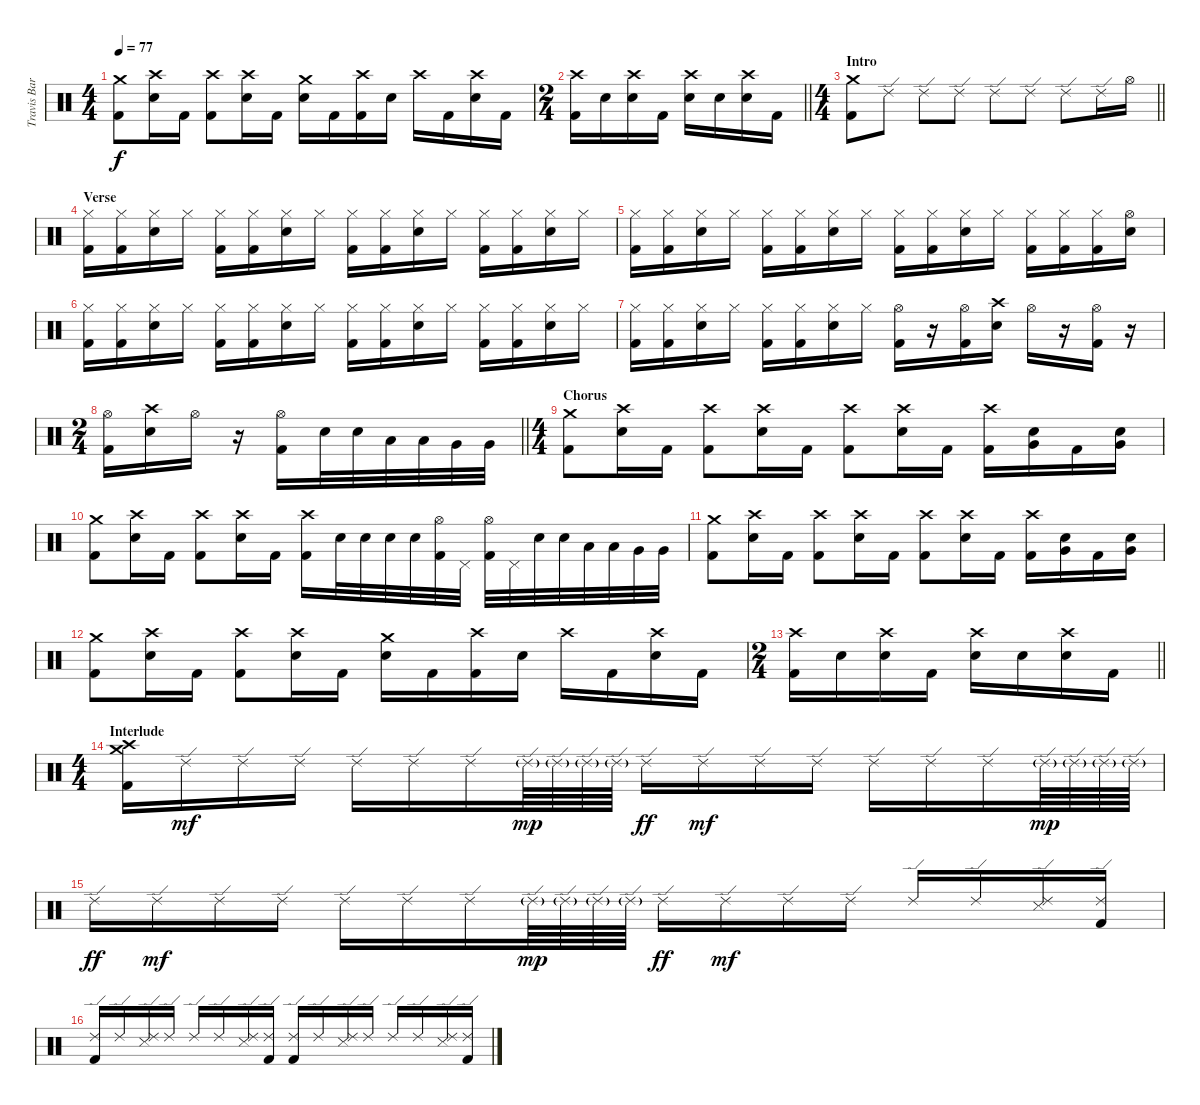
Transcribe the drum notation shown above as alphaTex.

\track ("Travis Barker" "Travis Bar") {instrument percussion}
\staff {score}
\articulation defaults
\ts (4 4)
\tempo 77
\clef neutral
\ks c
("Crash medium (hit)" "Kick (hit) 2").8{dy f} ("Crash high (hit)" "Electric Snare (hit)").16 "Kick (hit) 2".16 ("Crash high (hit)" "Kick (hit) 2").8 ("Crash high (hit)" "Electric Snare (hit)").16 "Kick (hit) 2".16 ("Crash medium (hit)" "Electric Snare (hit)").16 "Kick (hit) 2".16 ("Crash high (hit)" "Kick (hit) 2").16 "Electric Snare (hit)".16 "Crash high (hit)".16 "Kick (hit) 2".16 ("Crash high (hit)" "Electric Snare (hit)").16 "Kick (hit) 2".16 |
\ts (2 4)
\barLineRight lightlight
("Crash high (hit)" "Kick (hit) 2").16 "Electric Snare (hit)".16 ("Crash high (hit)" "Electric Snare (hit)").16 "Kick (hit) 2".16 ("Crash high (hit)" "Electric Snare (hit)").16 "Electric Snare (hit)".16 ("Crash high (hit)" "Electric Snare (hit)").16 "Kick (hit) 2".16 |
\ts (4 4)
\section ("" "Intro")
\barLineRight lightlight
("Crash medium (hit)" "Kick (hit) 2").8 "Ride (edge) 2".8 "Ride (edge) 2".8 "Ride (edge) 2".8 "Ride (edge) 2".8 "Ride (edge) 2".8 "Ride (edge) 2".8 "Ride (edge) 2".16 "Hi-Hat (open)".16 |
\section ("" "Verse")
("Hi-Hat (closed)" "Kick (hit) 2").16 ("Hi-Hat (closed)" "Kick (hit) 2").16 ("Hi-Hat (closed)" "Electric Snare (hit)").16 "Hi-Hat (closed)".16 ("Hi-Hat (closed)" "Kick (hit) 2").16 ("Hi-Hat (closed)" "Kick (hit) 2").16 ("Hi-Hat (closed)" "Electric Snare (hit)").16 "Hi-Hat (closed)".16 ("Hi-Hat (closed)" "Kick (hit) 2").16 ("Hi-Hat (closed)" "Kick (hit) 2").16 ("Hi-Hat (closed)" "Electric Snare (hit)").16 "Hi-Hat (closed)".16 ("Hi-Hat (closed)" "Kick (hit) 2").16 ("Hi-Hat (closed)" "Kick (hit) 2").16 ("Hi-Hat (closed)" "Electric Snare (hit)").16 "Hi-Hat (closed)".16 |
("Hi-Hat (closed)" "Kick (hit) 2").16 ("Hi-Hat (closed)" "Kick (hit) 2").16 ("Hi-Hat (closed)" "Electric Snare (hit)").16 "Hi-Hat (closed)".16 ("Hi-Hat (closed)" "Kick (hit) 2").16 ("Hi-Hat (closed)" "Kick (hit) 2").16 ("Hi-Hat (closed)" "Electric Snare (hit)").16 "Hi-Hat (closed)".16 ("Hi-Hat (closed)" "Kick (hit) 2").16 ("Hi-Hat (closed)" "Kick (hit) 2").16 ("Hi-Hat (closed)" "Electric Snare (hit)").16 "Hi-Hat (closed)".16 ("Hi-Hat (closed)" "Kick (hit) 2").16 ("Hi-Hat (closed)" "Kick (hit) 2").16 ("Hi-Hat (closed)" "Kick (hit) 2").16 ("Hi-Hat (open)" "Electric Snare (hit)").16 |
("Hi-Hat (closed)" "Kick (hit) 2").16 ("Hi-Hat (closed)" "Kick (hit) 2").16 ("Hi-Hat (closed)" "Electric Snare (hit)").16 "Hi-Hat (closed)".16 ("Hi-Hat (closed)" "Kick (hit) 2").16 ("Hi-Hat (closed)" "Kick (hit) 2").16 ("Hi-Hat (closed)" "Electric Snare (hit)").16 "Hi-Hat (closed)".16 ("Hi-Hat (closed)" "Kick (hit) 2").16 ("Hi-Hat (closed)" "Kick (hit) 2").16 ("Hi-Hat (closed)" "Electric Snare (hit)").16 "Hi-Hat (closed)".16 ("Hi-Hat (closed)" "Kick (hit) 2").16 ("Hi-Hat (closed)" "Kick (hit) 2").16 ("Hi-Hat (closed)" "Electric Snare (hit)").16 "Hi-Hat (closed)".16 |
("Hi-Hat (closed)" "Kick (hit) 2").16 ("Hi-Hat (closed)" "Kick (hit) 2").16 ("Hi-Hat (closed)" "Electric Snare (hit)").16 "Hi-Hat (closed)".16 ("Hi-Hat (closed)" "Kick (hit) 2").16 ("Hi-Hat (closed)" "Kick (hit) 2").16 ("Hi-Hat (closed)" "Electric Snare (hit)").16 "Hi-Hat (closed)".16 ("Hi-Hat (open)" "Kick (hit) 2").16 r.16 ("Hi-Hat (open)" "Kick (hit) 2").16 ("Crash high (hit)" "Electric Snare (hit)").16 "Hi-Hat (open)".16 r.16 ("Hi-Hat (open)" "Kick (hit) 2").16 r.16 |
\ts (2 4)
\barLineRight lightlight
("Hi-Hat (open)" "Kick (hit) 2").16 ("Crash high (hit)" "Electric Snare (hit)").16 "Hi-Hat (open)".16 r.16 ("Hi-Hat (open)" "Kick (hit) 2").16 "Electric Snare (hit)".32 "Electric Snare (hit)".32 "Low Tom (hit)".32 "Low Tom (hit)".32 "Very Low Tom (hit)".32 "Very Low Tom (hit)".32 |
\ts (4 4)
\section ("" "Chorus")
("Crash medium (hit)" "Kick (hit) 2").8 ("Crash high (hit)" "Electric Snare (hit)").16 "Kick (hit) 2".16 ("Crash high (hit)" "Kick (hit) 2").8 ("Crash high (hit)" "Electric Snare (hit)").16 "Kick (hit) 2".16 ("Crash high (hit)" "Kick (hit) 2").8 ("Crash high (hit)" "Electric Snare (hit)").16 "Kick (hit) 2".16 ("Crash high (hit)" "Kick (hit) 2").16 ("Electric Snare (hit)" "Very Low Tom (hit)").16 "Kick (hit) 2".16 ("Electric Snare (hit)" "Very Low Tom (hit)").16 |
("Crash medium (hit)" "Kick (hit) 2").8 ("Crash high (hit)" "Electric Snare (hit)").16 "Kick (hit) 2".16 ("Crash high (hit)" "Kick (hit) 2").8 ("Crash high (hit)" "Electric Snare (hit)").16 "Kick (hit) 2".16 ("Crash high (hit)" "Kick (hit) 2").16 "Electric Snare (hit)".32 "Electric Snare (hit)".32 "Electric Snare (hit)".32 "Electric Snare (hit)".32 ("Hi-Hat (open)" "Kick (hit) 2").32 "Pedal Hi-Hat (hit)".32 ("Hi-Hat (open)" "Kick (hit) 2").32 "Pedal Hi-Hat (hit)".32 "Electric Snare (hit)".32 "Electric Snare (hit)".32 "Low Tom (hit)".32 "Low Tom (hit)".32 "Very Low Tom (hit)".32 "Very Low Tom (hit)".32 |
("Crash medium (hit)" "Kick (hit) 2").8 ("Crash high (hit)" "Electric Snare (hit)").16 "Kick (hit) 2".16 ("Crash high (hit)" "Kick (hit) 2").8 ("Crash high (hit)" "Electric Snare (hit)").16 "Kick (hit) 2".16 ("Crash high (hit)" "Kick (hit) 2").8 ("Crash high (hit)" "Electric Snare (hit)").16 "Kick (hit) 2".16 ("Crash high (hit)" "Kick (hit) 2").16 ("Electric Snare (hit)" "Very Low Tom (hit)").16 "Kick (hit) 2".16 ("Electric Snare (hit)" "Very Low Tom (hit)").16 |
("Crash medium (hit)" "Kick (hit) 2").8 ("Crash high (hit)" "Electric Snare (hit)").16 "Kick (hit) 2".16 ("Crash high (hit)" "Kick (hit) 2").8 ("Crash high (hit)" "Electric Snare (hit)").16 "Kick (hit) 2".16 ("Crash medium (hit)" "Electric Snare (hit)").16 "Kick (hit) 2".16 ("Crash high (hit)" "Kick (hit) 2").16 "Electric Snare (hit)".16 "Crash high (hit)".16 "Kick (hit) 2".16 ("Crash high (hit)" "Electric Snare (hit)").16 "Kick (hit) 2".16 |
\ts (2 4)
\barLineRight lightlight
("Crash high (hit)" "Kick (hit) 2").16 "Electric Snare (hit)".16 ("Crash high (hit)" "Electric Snare (hit)").16 "Kick (hit) 2".16 ("Crash high (hit)" "Electric Snare (hit)").16 "Electric Snare (hit)".16 ("Crash high (hit)" "Electric Snare (hit)").16 "Kick (hit) 2".16 |
\ts (4 4)
\section ("" "Interlude")
("Crash medium (hit)" "Crash high (hit)" "Kick (hit) 2").16 "Ride (edge) 2".16{dy mf} "Ride (edge) 2".16 "Ride (edge) 2".16 "Ride (edge) 2".16 "Ride (edge) 2".16 "Ride (edge) 2".16 "Ride (edge) 2"{g}.64{dy mp} "Ride (edge) 2"{g}.64 "Ride (edge) 2"{g}.64 "Ride (edge) 2"{g}.64 "Ride (edge) 2".16{dy ff} "Ride (edge) 2".16{dy mf} "Ride (edge) 2".16 "Ride (edge) 2".16 "Ride (edge) 2".16 "Ride (edge) 2".16 "Ride (edge) 2".16 "Ride (edge) 2"{g}.64{dy mp} "Ride (edge) 2"{g}.64 "Ride (edge) 2"{g}.64 "Ride (edge) 2"{g}.64 |
"Ride (edge) 2".16{dy ff} "Ride (edge) 2".16{dy mf} "Ride (edge) 2".16 "Ride (edge) 2".16 "Ride (edge) 2".16 "Ride (edge) 2".16 "Ride (edge) 2".16 "Ride (edge) 2"{g}.64{dy mp} "Ride (edge) 2"{g}.64 "Ride (edge) 2"{g}.64 "Ride (edge) 2"{g}.64 "Ride (edge) 2".16{dy ff} "Ride (edge) 2".16{dy mf} "Ride (edge) 2".16 "Ride (edge) 2".16 "Ride (edge) 2".16 "Ride (edge) 2".16 ("Ride (edge) 2" "Snare (side stick) 3").16 ("Ride (edge) 2" "Kick (hit) 2").16 |
("Ride (edge) 2" "Kick (hit) 2").16 "Ride (edge) 2".16 ("Ride (edge) 2" "Snare (side stick) 3").16 "Ride (edge) 2".16 "Ride (edge) 2".16 "Ride (edge) 2".16 ("Ride (edge) 2" "Snare (side stick) 3").16 ("Ride (edge) 2" "Kick (hit) 2").16 ("Ride (edge) 2" "Kick (hit) 2").16 "Ride (edge) 2".16 ("Ride (edge) 2" "Snare (side stick) 3").16 "Ride (edge) 2".16 "Ride (edge) 2".16 "Ride (edge) 2".16 ("Ride (edge) 2" "Snare (side stick) 3").16 ("Ride (edge) 2" "Kick (hit) 2").16
